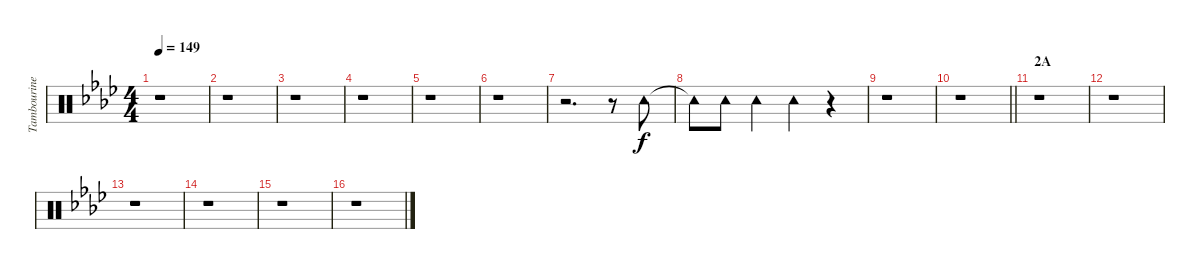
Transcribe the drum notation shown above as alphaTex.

\track ("Tambourine" "Tambourine") {instrument percussion}
\staff {score}
\articulation defaults
\ts (4 4)
\tempo 149
\clef neutral
\ks ab
r.1{dy f} |
r.1 |
r.1 |
r.1 |
r.1 |
r.1 |
r.2{d} r.8 "Tambourine (hit)".8 |
"Tambourine (hit)"{t}.8 "Tambourine (hit)".8 "Tambourine (hit)".4 "Tambourine (hit)".4 r.4 |
r.1 |
\barLineRight lightlight
r.1 |
\section ("" "2A")
r.1 |
r.1 |
r.1 |
r.1 |
r.1 |
r.1
